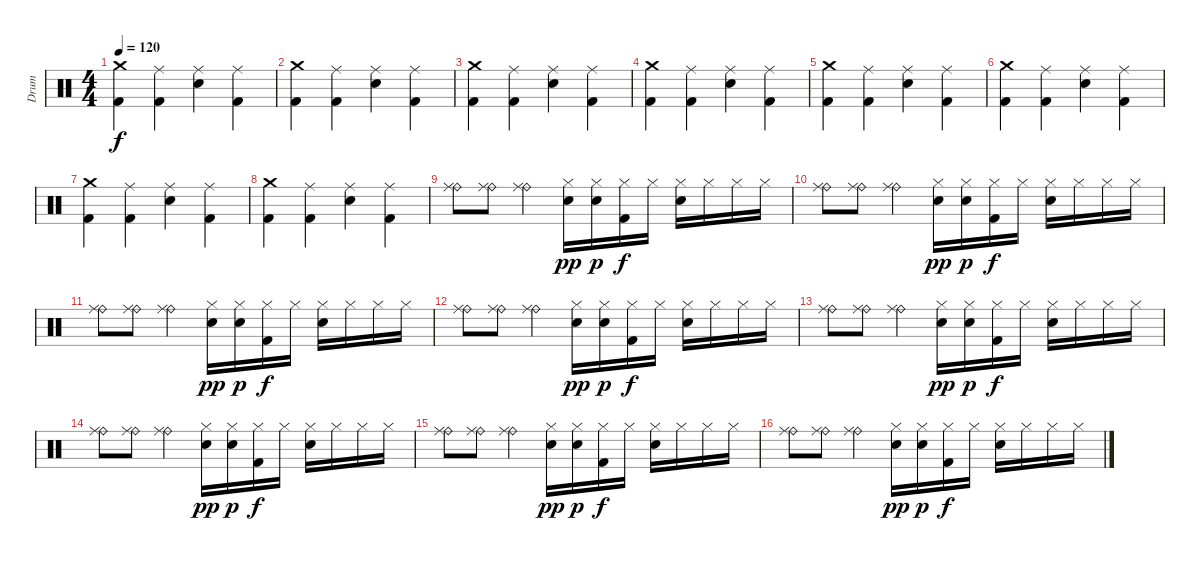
\track ("Drum" "Drum") {instrument percussion}
\staff {score}
\articulation defaults
\ts (4 4)
\tempo 120
\clef neutral
\ks c
("Crash medium (hit)" "Kick (hit) 2").4{dy f} ("Ride (middle)" "Kick (hit) 2").4 ("Ride (middle)" "Snare (hit) 2").4 ("Ride (middle)" "Kick (hit) 2").4 |
("Crash medium (hit)" "Kick (hit) 2").4 ("Ride (middle)" "Kick (hit) 2").4 ("Ride (middle)" "Snare (hit) 2").4 ("Ride (middle)" "Kick (hit) 2").4 |
("Crash medium (hit)" "Kick (hit) 2").4 ("Ride (middle)" "Kick (hit) 2").4 ("Ride (middle)" "Snare (hit) 2").4 ("Ride (middle)" "Kick (hit) 2").4 |
("Crash medium (hit)" "Kick (hit) 2").4 ("Ride (middle)" "Kick (hit) 2").4 ("Ride (middle)" "Snare (hit) 2").4 ("Ride (middle)" "Kick (hit) 2").4 |
("Crash medium (hit)" "Kick (hit) 2").4 ("Ride (middle)" "Kick (hit) 2").4 ("Ride (middle)" "Snare (hit) 2").4 ("Ride (middle)" "Kick (hit) 2").4 |
("Crash medium (hit)" "Kick (hit) 2").4 ("Ride (middle)" "Kick (hit) 2").4 ("Ride (middle)" "Snare (hit) 2").4 ("Ride (middle)" "Kick (hit) 2").4 |
("Crash medium (hit)" "Kick (hit) 2").4 ("Ride (middle)" "Kick (hit) 2").4 ("Ride (middle)" "Snare (hit) 2").4 ("Ride (middle)" "Kick (hit) 2").4 |
("Crash medium (hit)" "Kick (hit) 2").4 ("Ride (middle)" "Kick (hit) 2").4 ("Ride (middle)" "Snare (hit) 2").4 ("Ride (middle)" "Kick (hit) 2").4 |
("Ride (bell)" "Ride (middle)").8 ("Ride (bell)" "Ride (middle)").8 ("Ride (bell)" "Ride (middle)").4 ("Hi-Hat (closed)" "Snare (hit) 2").16{dy pp} ("Hi-Hat (closed)" "Snare (hit) 2").16{dy p} ("Hi-Hat (closed)" "Kick (hit) 2").16{dy f} "Hi-Hat (closed)".16 ("Hi-Hat (closed)" "Snare (hit) 2").16 "Hi-Hat (closed)".16 "Hi-Hat (closed)".16 "Hi-Hat (closed)".16 |
("Ride (bell)" "Ride (middle)").8 ("Ride (bell)" "Ride (middle)").8 ("Ride (bell)" "Ride (middle)").4 ("Hi-Hat (closed)" "Snare (hit) 2").16{dy pp} ("Hi-Hat (closed)" "Snare (hit) 2").16{dy p} ("Hi-Hat (closed)" "Kick (hit) 2").16{dy f} "Hi-Hat (closed)".16 ("Hi-Hat (closed)" "Snare (hit) 2").16 "Hi-Hat (closed)".16 "Hi-Hat (closed)".16 "Hi-Hat (closed)".16 |
("Ride (bell)" "Ride (middle)").8 ("Ride (bell)" "Ride (middle)").8 ("Ride (bell)" "Ride (middle)").4 ("Hi-Hat (closed)" "Snare (hit) 2").16{dy pp} ("Hi-Hat (closed)" "Snare (hit) 2").16{dy p} ("Hi-Hat (closed)" "Kick (hit) 2").16{dy f} "Hi-Hat (closed)".16 ("Hi-Hat (closed)" "Snare (hit) 2").16 "Hi-Hat (closed)".16 "Hi-Hat (closed)".16 "Hi-Hat (closed)".16 |
("Ride (bell)" "Ride (middle)").8 ("Ride (bell)" "Ride (middle)").8 ("Ride (bell)" "Ride (middle)").4 ("Hi-Hat (closed)" "Snare (hit) 2").16{dy pp} ("Hi-Hat (closed)" "Snare (hit) 2").16{dy p} ("Hi-Hat (closed)" "Kick (hit) 2").16{dy f} "Hi-Hat (closed)".16 ("Hi-Hat (closed)" "Snare (hit) 2").16 "Hi-Hat (closed)".16 "Hi-Hat (closed)".16 "Hi-Hat (closed)".16 |
("Ride (bell)" "Ride (middle)").8 ("Ride (bell)" "Ride (middle)").8 ("Ride (bell)" "Ride (middle)").4 ("Hi-Hat (closed)" "Snare (hit) 2").16{dy pp} ("Hi-Hat (closed)" "Snare (hit) 2").16{dy p} ("Hi-Hat (closed)" "Kick (hit) 2").16{dy f} "Hi-Hat (closed)".16 ("Hi-Hat (closed)" "Snare (hit) 2").16 "Hi-Hat (closed)".16 "Hi-Hat (closed)".16 "Hi-Hat (closed)".16 |
("Ride (bell)" "Ride (middle)").8 ("Ride (bell)" "Ride (middle)").8 ("Ride (bell)" "Ride (middle)").4 ("Hi-Hat (closed)" "Snare (hit) 2").16{dy pp} ("Hi-Hat (closed)" "Snare (hit) 2").16{dy p} ("Hi-Hat (closed)" "Kick (hit) 2").16{dy f} "Hi-Hat (closed)".16 ("Hi-Hat (closed)" "Snare (hit) 2").16 "Hi-Hat (closed)".16 "Hi-Hat (closed)".16 "Hi-Hat (closed)".16 |
("Ride (bell)" "Ride (middle)").8 ("Ride (bell)" "Ride (middle)").8 ("Ride (bell)" "Ride (middle)").4 ("Hi-Hat (closed)" "Snare (hit) 2").16{dy pp} ("Hi-Hat (closed)" "Snare (hit) 2").16{dy p} ("Hi-Hat (closed)" "Kick (hit) 2").16{dy f} "Hi-Hat (closed)".16 ("Hi-Hat (closed)" "Snare (hit) 2").16 "Hi-Hat (closed)".16 "Hi-Hat (closed)".16 "Hi-Hat (closed)".16 |
("Ride (bell)" "Ride (middle)").8 ("Ride (bell)" "Ride (middle)").8 ("Ride (bell)" "Ride (middle)").4 ("Hi-Hat (closed)" "Snare (hit) 2").16{dy pp} ("Hi-Hat (closed)" "Snare (hit) 2").16{dy p} ("Hi-Hat (closed)" "Kick (hit) 2").16{dy f} "Hi-Hat (closed)".16 ("Hi-Hat (closed)" "Snare (hit) 2").16 "Hi-Hat (closed)".16 "Hi-Hat (closed)".16 "Hi-Hat (closed)".16
